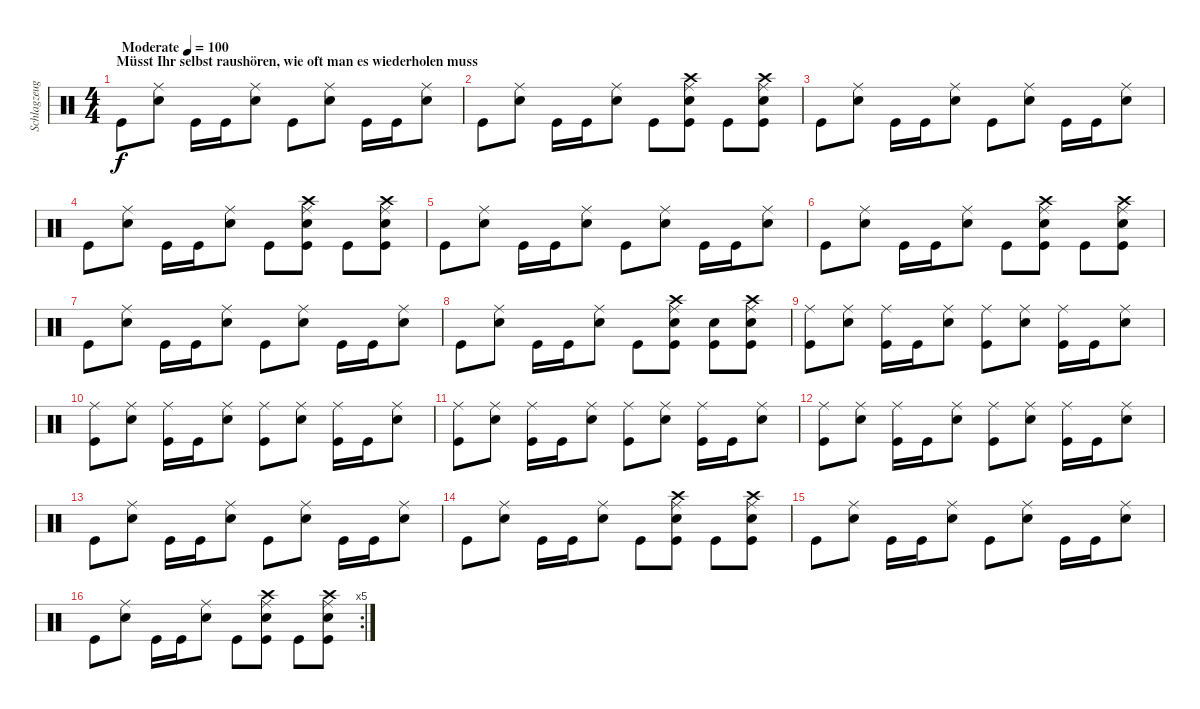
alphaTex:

\track ("Schlagzeug" "Schlagzeug") {instrument percussion}
\staff {score}
\articulation defaults
\ts (4 4)
\section ("" "Müsst Ihr selbst raushören, wie oft man es wiederholen muss")
\tempo (100 "Moderate")
\clef neutral
\ks c "Kick (hit)".8{dy f}
("Ride (middle)" "Snare (hit) 2").8 "Kick (hit)".16 "Kick (hit)".16 ("Ride (middle)" "Snare (hit) 2").8 "Kick (hit)".8 ("Ride (middle)" "Snare (hit) 2").8 "Kick (hit)".16 "Kick (hit)".16 ("Ride (middle)" "Snare (hit) 2").8 |
"Kick (hit)".8 ("Ride (middle)" "Snare (hit) 2").8 "Kick (hit)".16 "Kick (hit)".16 ("Ride (middle)" "Snare (hit) 2").8 "Kick (hit)".8 ("Ride (middle)" "Crash high (hit)" "Snare (hit) 2" "Kick (hit)").8 "Kick (hit)".8 ("Ride (middle)" "Crash high (hit)" "Snare (hit) 2" "Kick (hit)").8 |
"Kick (hit)".8 ("Ride (middle)" "Snare (hit) 2").8 "Kick (hit)".16 "Kick (hit)".16 ("Ride (middle)" "Snare (hit) 2").8 "Kick (hit)".8 ("Ride (middle)" "Snare (hit) 2").8 "Kick (hit)".16 "Kick (hit)".16 ("Ride (middle)" "Snare (hit) 2").8 |
"Kick (hit)".8 ("Ride (middle)" "Snare (hit) 2").8 "Kick (hit)".16 "Kick (hit)".16 ("Ride (middle)" "Snare (hit) 2").8 "Kick (hit)".8 ("Ride (middle)" "Crash high (hit)" "Snare (hit) 2" "Kick (hit)").8 "Kick (hit)".8 ("Ride (middle)" "Crash high (hit)" "Snare (hit) 2" "Kick (hit)").8 |
"Kick (hit)".8 ("Ride (middle)" "Snare (hit) 2").8 "Kick (hit)".16 "Kick (hit)".16 ("Ride (middle)" "Snare (hit) 2").8 "Kick (hit)".8 ("Ride (middle)" "Snare (hit) 2").8 "Kick (hit)".16 "Kick (hit)".16 ("Ride (middle)" "Snare (hit) 2").8 |
"Kick (hit)".8 ("Ride (middle)" "Snare (hit) 2").8 "Kick (hit)".16 "Kick (hit)".16 ("Ride (middle)" "Snare (hit) 2").8 "Kick (hit)".8 ("Ride (middle)" "Crash high (hit)" "Snare (hit) 2" "Kick (hit)").8 "Kick (hit)".8 ("Ride (middle)" "Crash high (hit)" "Snare (hit) 2" "Kick (hit)").8 |
"Kick (hit)".8 ("Ride (middle)" "Snare (hit) 2").8 "Kick (hit)".16 "Kick (hit)".16 ("Ride (middle)" "Snare (hit) 2").8 "Kick (hit)".8 ("Ride (middle)" "Snare (hit) 2").8 "Kick (hit)".16 "Kick (hit)".16 ("Ride (middle)" "Snare (hit) 2").8 |
"Kick (hit)".8 ("Ride (middle)" "Snare (hit) 2").8 "Kick (hit)".16 "Kick (hit)".16 ("Ride (middle)" "Snare (hit) 2").8 "Kick (hit)".8 ("Ride (middle)" "Crash high (hit)" "Snare (hit) 2" "Kick (hit)").8 ("Snare (hit) 2" "Kick (hit)").8 ("Ride (middle)" "Crash high (hit)" "Snare (hit) 2" "Kick (hit)").8 |
("Ride (middle)" "Kick (hit)").8 ("Ride (middle)" "Snare (hit) 2").8 ("Ride (middle)" "Kick (hit)").16 "Kick (hit)".16 ("Ride (middle)" "Snare (hit) 2").8 ("Ride (middle)" "Kick (hit)").8 ("Ride (middle)" "Snare (hit) 2").8 ("Ride (middle)" "Kick (hit)").16 "Kick (hit)".16 ("Ride (middle)" "Snare (hit) 2").8 |
("Ride (middle)" "Kick (hit)").8 ("Ride (middle)" "Snare (hit) 2").8 ("Ride (middle)" "Kick (hit)").16 "Kick (hit)".16 ("Ride (middle)" "Snare (hit) 2").8 ("Ride (middle)" "Kick (hit)").8 ("Ride (middle)" "Snare (hit) 2").8 ("Ride (middle)" "Kick (hit)").16 "Kick (hit)".16 ("Ride (middle)" "Snare (hit) 2").8 |
("Ride (middle)" "Kick (hit)").8 ("Ride (middle)" "Snare (hit) 2").8 ("Ride (middle)" "Kick (hit)").16 "Kick (hit)".16 ("Ride (middle)" "Snare (hit) 2").8 ("Ride (middle)" "Kick (hit)").8 ("Ride (middle)" "Snare (hit) 2").8 ("Ride (middle)" "Kick (hit)").16 "Kick (hit)".16 ("Ride (middle)" "Snare (hit) 2").8 |
("Ride (middle)" "Kick (hit)").8 ("Ride (middle)" "Snare (hit) 2").8 ("Ride (middle)" "Kick (hit)").16 "Kick (hit)".16 ("Ride (middle)" "Snare (hit) 2").8 ("Ride (middle)" "Kick (hit)").8 ("Ride (middle)" "Snare (hit) 2").8 ("Ride (middle)" "Kick (hit)").16 "Kick (hit)".16 ("Ride (middle)" "Snare (hit) 2").8 |
"Kick (hit)".8 ("Ride (middle)" "Snare (hit) 2").8 "Kick (hit)".16 "Kick (hit)".16 ("Ride (middle)" "Snare (hit) 2").8 "Kick (hit)".8 ("Ride (middle)" "Snare (hit) 2").8 "Kick (hit)".16 "Kick (hit)".16 ("Ride (middle)" "Snare (hit) 2").8 |
"Kick (hit)".8 ("Ride (middle)" "Snare (hit) 2").8 "Kick (hit)".16 "Kick (hit)".16 ("Ride (middle)" "Snare (hit) 2").8 "Kick (hit)".8 ("Ride (middle)" "Crash high (hit)" "Snare (hit) 2" "Kick (hit)").8 "Kick (hit)".8 ("Ride (middle)" "Crash high (hit)" "Snare (hit) 2" "Kick (hit)").8 |
"Kick (hit)".8 ("Ride (middle)" "Snare (hit) 2").8 "Kick (hit)".16 "Kick (hit)".16 ("Ride (middle)" "Snare (hit) 2").8 "Kick (hit)".8 ("Ride (middle)" "Snare (hit) 2").8 "Kick (hit)".16 "Kick (hit)".16 ("Ride (middle)" "Snare (hit) 2").8 |
\rc 5 "Kick (hit)".8
("Ride (middle)" "Snare (hit) 2").8 "Kick (hit)".16 "Kick (hit)".16 ("Ride (middle)" "Snare (hit) 2").8 "Kick (hit)".8 ("Ride (middle)" "Crash high (hit)" "Snare (hit) 2" "Kick (hit)").8 "Kick (hit)".8 ("Ride (middle)" "Crash high (hit)" "Snare (hit) 2" "Kick (hit)").8
